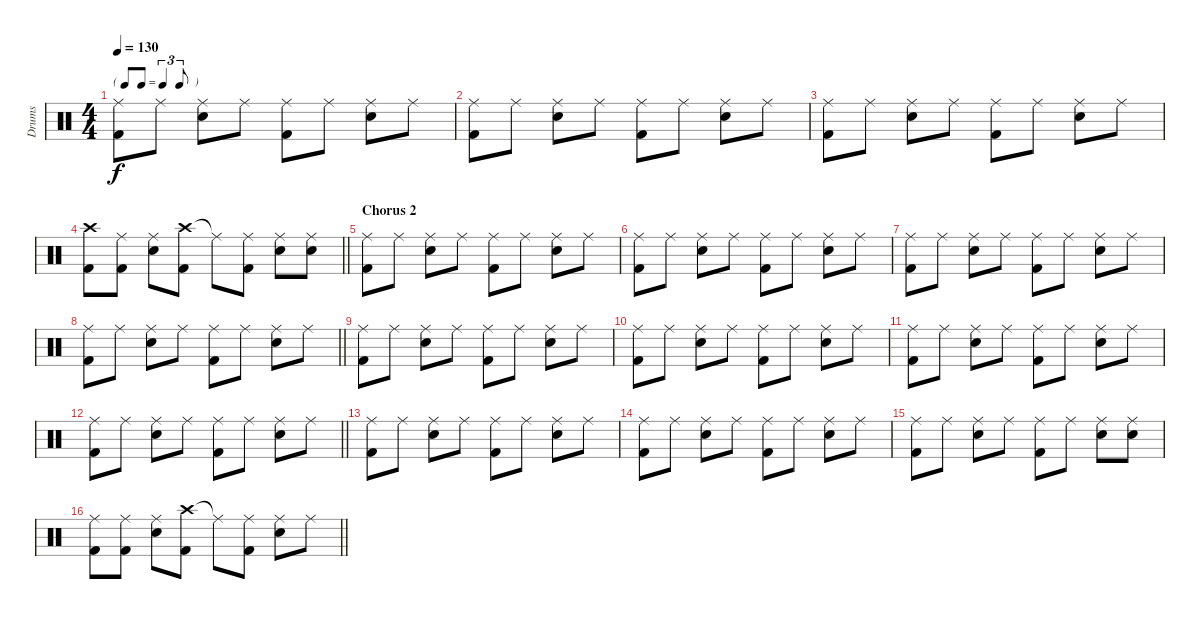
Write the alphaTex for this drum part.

\track ("Drums" "Drums") {instrument percussion}
\staff {score}
\articulation defaults
\ts (4 4)
\tf triplet8th
\tempo 130
\clef neutral
\ks c
("Ride (middle)" "Kick (hit) 2").8{dy f} "Ride (middle)".8 ("Ride (middle)" "Snare (hit) 2").8 "Ride (middle)".8 ("Ride (middle)" "Kick (hit) 2").8 "Ride (middle)".8 ("Ride (middle)" "Snare (hit) 2").8 "Ride (middle)".8 |
("Ride (middle)" "Kick (hit) 2").8 "Ride (middle)".8 ("Ride (middle)" "Snare (hit) 2").8 "Ride (middle)".8 ("Ride (middle)" "Kick (hit) 2").8 "Ride (middle)".8 ("Ride (middle)" "Snare (hit) 2").8 "Ride (middle)".8 |
("Ride (middle)" "Kick (hit) 2").8 "Ride (middle)".8 ("Ride (middle)" "Snare (hit) 2").8 "Ride (middle)".8 ("Ride (middle)" "Kick (hit) 2").8 "Ride (middle)".8 ("Ride (middle)" "Snare (hit) 2").8 "Ride (middle)".8 |
\barLineRight lightlight
("Crash high (hit)" "Kick (hit) 2").8 ("Ride (middle)" "Kick (hit) 2").8 ("Ride (middle)" "Snare (hit) 2").8 ("Crash high (hit)" "Kick (hit) 2").8 "Ride (middle)"{t}.8 ("Ride (middle)" "Kick (hit) 2").8 ("Ride (middle)" "Snare (hit) 2").8 ("Ride (middle)" "Snare (hit) 2").8 |
\section ("" "Chorus 2")
("Ride (middle)" "Kick (hit) 2").8 "Ride (middle)".8 ("Ride (middle)" "Snare (hit) 2").8 "Ride (middle)".8 ("Ride (middle)" "Kick (hit) 2").8 "Ride (middle)".8 ("Ride (middle)" "Snare (hit) 2").8 "Ride (middle)".8 |
("Ride (middle)" "Kick (hit) 2").8 "Ride (middle)".8 ("Ride (middle)" "Snare (hit) 2").8 "Ride (middle)".8 ("Ride (middle)" "Kick (hit) 2").8 "Ride (middle)".8 ("Ride (middle)" "Snare (hit) 2").8 "Ride (middle)".8 |
("Ride (middle)" "Kick (hit) 2").8 "Ride (middle)".8 ("Ride (middle)" "Snare (hit) 2").8 "Ride (middle)".8 ("Ride (middle)" "Kick (hit) 2").8 "Ride (middle)".8 ("Ride (middle)" "Snare (hit) 2").8 "Ride (middle)".8 |
\barLineRight lightlight
("Ride (middle)" "Kick (hit) 2").8 "Ride (middle)".8 ("Ride (middle)" "Snare (hit) 2").8 "Ride (middle)".8 ("Ride (middle)" "Kick (hit) 2").8 "Ride (middle)".8 ("Ride (middle)" "Snare (hit) 2").8 "Ride (middle)".8 |
("Ride (middle)" "Kick (hit) 2").8 "Ride (middle)".8 ("Ride (middle)" "Snare (hit) 2").8 "Ride (middle)".8 ("Ride (middle)" "Kick (hit) 2").8 "Ride (middle)".8 ("Ride (middle)" "Snare (hit) 2").8 "Ride (middle)".8 |
("Ride (middle)" "Kick (hit) 2").8 "Ride (middle)".8 ("Ride (middle)" "Snare (hit) 2").8 "Ride (middle)".8 ("Ride (middle)" "Kick (hit) 2").8 "Ride (middle)".8 ("Ride (middle)" "Snare (hit) 2").8 "Ride (middle)".8 |
("Ride (middle)" "Kick (hit) 2").8 "Ride (middle)".8 ("Ride (middle)" "Snare (hit) 2").8 "Ride (middle)".8 ("Ride (middle)" "Kick (hit) 2").8 "Ride (middle)".8 ("Ride (middle)" "Snare (hit) 2").8 "Ride (middle)".8 |
\barLineRight lightlight
("Ride (middle)" "Kick (hit) 2").8 "Ride (middle)".8 ("Ride (middle)" "Snare (hit) 2").8 "Ride (middle)".8 ("Ride (middle)" "Kick (hit) 2").8 "Ride (middle)".8 ("Ride (middle)" "Snare (hit) 2").8 "Ride (middle)".8 |
("Ride (middle)" "Kick (hit) 2").8 "Ride (middle)".8 ("Ride (middle)" "Snare (hit) 2").8 "Ride (middle)".8 ("Ride (middle)" "Kick (hit) 2").8 "Ride (middle)".8 ("Ride (middle)" "Snare (hit) 2").8 "Ride (middle)".8 |
("Ride (middle)" "Kick (hit) 2").8 "Ride (middle)".8 ("Ride (middle)" "Snare (hit) 2").8 "Ride (middle)".8 ("Ride (middle)" "Kick (hit) 2").8 "Ride (middle)".8 ("Ride (middle)" "Snare (hit) 2").8 "Ride (middle)".8 |
("Ride (middle)" "Kick (hit) 2").8 "Ride (middle)".8 ("Ride (middle)" "Snare (hit) 2").8 "Ride (middle)".8 ("Ride (middle)" "Kick (hit) 2").8 "Ride (middle)".8 ("Ride (middle)" "Snare (hit) 2").8 ("Ride (middle)" "Snare (hit) 2").8 |
\barLineRight lightlight
("Ride (middle)" "Kick (hit) 2").8 ("Ride (middle)" "Kick (hit) 2").8 ("Ride (middle)" "Snare (hit) 2").8 ("Crash high (hit)" "Kick (hit) 2").8 "Ride (middle)"{t}.8 ("Ride (middle)" "Kick (hit) 2").8 ("Ride (middle)" "Snare (hit) 2").8 "Ride (middle)".8
